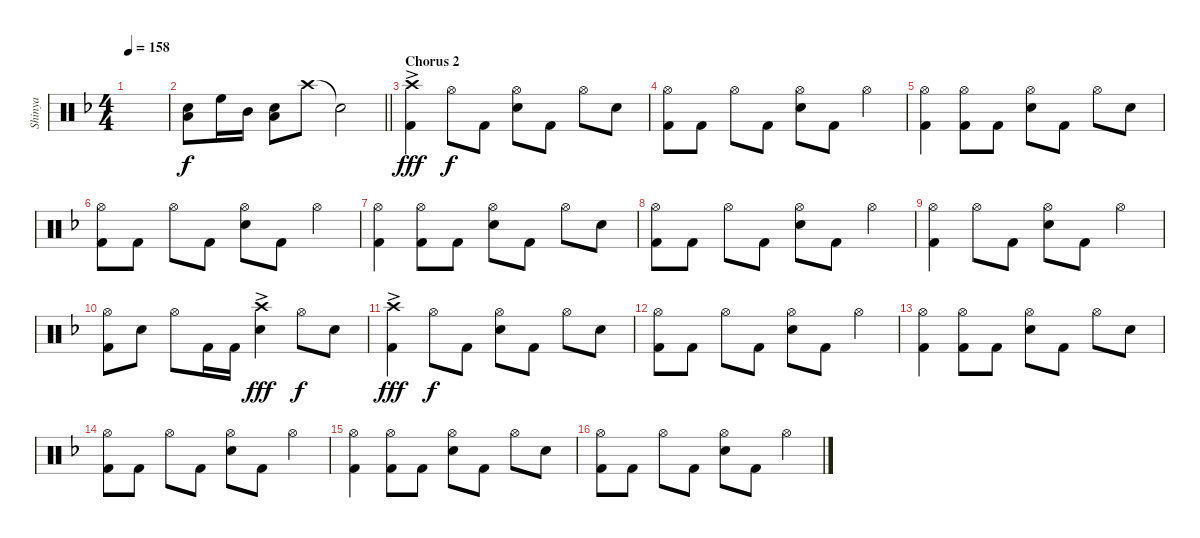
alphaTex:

\track ("Shinya" "Shinya") {instrument percussion}
\staff {score}
\articulation defaults
\ts (4 4)
\tempo 158
\clef neutral
\ks f
|
\barLineRight lightlight
("Snare (hit) 2" "Low Floor Tom (hit)").8{dy f} "High Floor Tom (hit)".16 "Mid Tom (hit)".16 ("Snare (hit) 2" "Low Floor Tom (hit)").8 "Crash high (hit)".8 "Snare (hit)"{t}.2 |
\section ("" "Chorus 2")
("Crash high (hit)"{ac} "Kick (hit) 2").4{dy fff} "Hi-Hat (open)".8{dy f} "Kick (hit) 2".8 ("Hi-Hat (open)" "Snare (hit) 2").8 "Kick (hit) 2".8 "Hi-Hat (open)".8 "Snare (hit) 2".8 |
("Hi-Hat (open)" "Kick (hit) 2").8 "Kick (hit) 2".8 "Hi-Hat (open)".8 "Kick (hit) 2".8 ("Hi-Hat (open)" "Snare (hit) 2").8 "Kick (hit) 2".8 "Hi-Hat (open)".4 |
("Hi-Hat (open)" "Kick (hit) 2").4 ("Hi-Hat (open)" "Kick (hit) 2").8 "Kick (hit) 2".8 ("Hi-Hat (open)" "Snare (hit) 2").8 "Kick (hit) 2".8 "Hi-Hat (open)".8 "Snare (hit) 2".8 |
("Hi-Hat (open)" "Kick (hit) 2").8 "Kick (hit) 2".8 "Hi-Hat (open)".8 "Kick (hit) 2".8 ("Hi-Hat (open)" "Snare (hit) 2").8 "Kick (hit) 2".8 "Hi-Hat (open)".4 |
("Hi-Hat (open)" "Kick (hit) 2").4 ("Hi-Hat (open)" "Kick (hit) 2").8 "Kick (hit) 2".8 ("Hi-Hat (open)" "Snare (hit) 2").8 "Kick (hit) 2".8 "Hi-Hat (open)".8 "Snare (hit) 2".8 |
("Hi-Hat (open)" "Kick (hit) 2").8 "Kick (hit) 2".8 "Hi-Hat (open)".8 "Kick (hit) 2".8 ("Hi-Hat (open)" "Snare (hit) 2").8 "Kick (hit) 2".8 "Hi-Hat (open)".4 |
("Hi-Hat (open)" "Kick (hit) 2").4 "Hi-Hat (open)".8 "Kick (hit) 2".8 ("Hi-Hat (open)" "Snare (hit) 2").8 "Kick (hit) 2".8 "Hi-Hat (open)".4 |
("Hi-Hat (open)" "Kick (hit) 2").8 "Snare (hit) 2".8 "Hi-Hat (open)".8 "Kick (hit) 2".16 "Kick (hit) 2".16 ("Crash high (hit)"{ac} "Snare (hit) 2").4{dy fff} "Hi-Hat (open)".8{dy f} "Snare (hit) 2".8 |
("Crash high (hit)"{ac} "Kick (hit) 2").4{dy fff} "Hi-Hat (open)".8{dy f} "Kick (hit) 2".8 ("Hi-Hat (open)" "Snare (hit) 2").8 "Kick (hit) 2".8 "Hi-Hat (open)".8 "Snare (hit) 2".8 |
("Hi-Hat (open)" "Kick (hit) 2").8 "Kick (hit) 2".8 "Hi-Hat (open)".8 "Kick (hit) 2".8 ("Hi-Hat (open)" "Snare (hit) 2").8 "Kick (hit) 2".8 "Hi-Hat (open)".4 |
("Hi-Hat (open)" "Kick (hit) 2").4 ("Hi-Hat (open)" "Kick (hit) 2").8 "Kick (hit) 2".8 ("Hi-Hat (open)" "Snare (hit) 2").8 "Kick (hit) 2".8 "Hi-Hat (open)".8 "Snare (hit) 2".8 |
("Hi-Hat (open)" "Kick (hit) 2").8 "Kick (hit) 2".8 "Hi-Hat (open)".8 "Kick (hit) 2".8 ("Hi-Hat (open)" "Snare (hit) 2").8 "Kick (hit) 2".8 "Hi-Hat (open)".4 |
("Hi-Hat (open)" "Kick (hit) 2").4 ("Hi-Hat (open)" "Kick (hit) 2").8 "Kick (hit) 2".8 ("Hi-Hat (open)" "Snare (hit) 2").8 "Kick (hit) 2".8 "Hi-Hat (open)".8 "Snare (hit) 2".8 |
("Hi-Hat (open)" "Kick (hit) 2").8 "Kick (hit) 2".8 "Hi-Hat (open)".8 "Kick (hit) 2".8 ("Hi-Hat (open)" "Snare (hit) 2").8 "Kick (hit) 2".8 "Hi-Hat (open)".4
